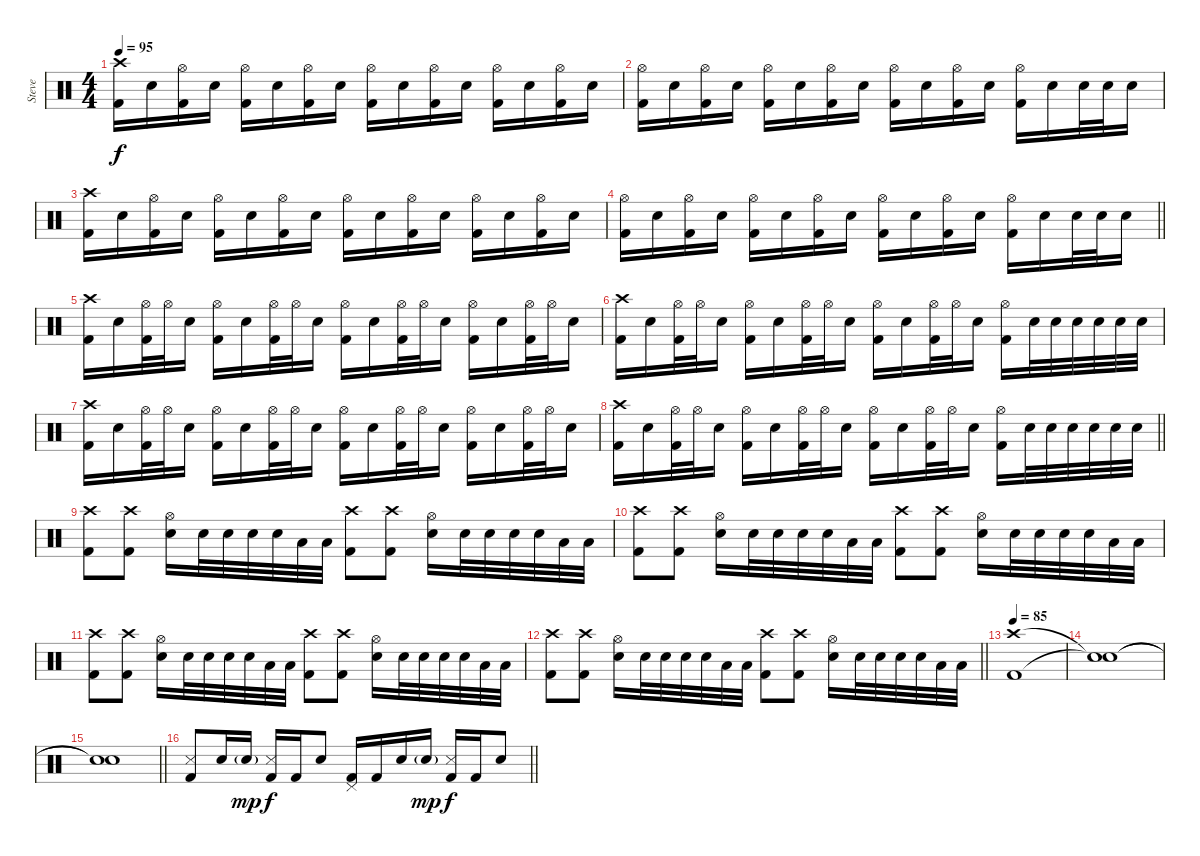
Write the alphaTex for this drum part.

\track ("Steve" "Steve") {instrument percussion}
\staff {score}
\articulation defaults
\ts (4 4)
\tempo 95
\clef neutral
\ks c
("Kick (hit) 2" "Crash high (hit)").16{dy f} "Snare (hit) 2".16 ("Kick (hit) 2" "Hi-Hat (open)").16 "Snare (hit) 2".16 ("Kick (hit) 2" "Hi-Hat (open)").16 "Snare (hit) 2".16 ("Kick (hit) 2" "Hi-Hat (open)").16 "Snare (hit) 2".16 ("Kick (hit) 2" "Hi-Hat (open)").16 "Snare (hit) 2".16 ("Kick (hit) 2" "Hi-Hat (open)").16 "Snare (hit) 2".16 ("Kick (hit) 2" "Hi-Hat (open)").16 "Snare (hit) 2".16 ("Kick (hit) 2" "Hi-Hat (open)").16 "Snare (hit) 2".16 |
("Kick (hit) 2" "Hi-Hat (open)").16 "Snare (hit) 2".16 ("Kick (hit) 2" "Hi-Hat (open)").16 "Snare (hit) 2".16 ("Kick (hit) 2" "Hi-Hat (open)").16 "Snare (hit) 2".16 ("Kick (hit) 2" "Hi-Hat (open)").16 "Snare (hit) 2".16 ("Kick (hit) 2" "Hi-Hat (open)").16 "Snare (hit) 2".16 ("Kick (hit) 2" "Hi-Hat (open)").16 "Snare (hit) 2".16 ("Kick (hit) 2" "Hi-Hat (open)").16 "Snare (hit) 2".16 "Snare (hit) 2".32 "Snare (hit) 2".32 "Snare (hit) 2".16 |
("Kick (hit) 2" "Crash high (hit)").16 "Snare (hit) 2".16 ("Kick (hit) 2" "Hi-Hat (open)").16 "Snare (hit) 2".16 ("Kick (hit) 2" "Hi-Hat (open)").16 "Snare (hit) 2".16 ("Kick (hit) 2" "Hi-Hat (open)").16 "Snare (hit) 2".16 ("Kick (hit) 2" "Hi-Hat (open)").16 "Snare (hit) 2".16 ("Kick (hit) 2" "Hi-Hat (open)").16 "Snare (hit) 2".16 ("Kick (hit) 2" "Hi-Hat (open)").16 "Snare (hit) 2".16 ("Kick (hit) 2" "Hi-Hat (open)").16 "Snare (hit) 2".16 |
\barLineRight lightlight
("Kick (hit) 2" "Hi-Hat (open)").16 "Snare (hit) 2".16 ("Kick (hit) 2" "Hi-Hat (open)").16 "Snare (hit) 2".16 ("Kick (hit) 2" "Hi-Hat (open)").16 "Snare (hit) 2".16 ("Kick (hit) 2" "Hi-Hat (open)").16 "Snare (hit) 2".16 ("Kick (hit) 2" "Hi-Hat (open)").16 "Snare (hit) 2".16 ("Kick (hit) 2" "Hi-Hat (open)").16 "Snare (hit) 2".16 ("Kick (hit) 2" "Hi-Hat (open)").16 "Snare (hit) 2".16 "Snare (hit) 2".32 "Snare (hit) 2".32 "Snare (hit) 2".16 |
("Kick (hit) 2" "Crash high (hit)").16 "Snare (hit) 2".16 ("Kick (hit) 2" "Hi-Hat (open)").32 "Hi-Hat (open)".32 "Snare (hit) 2".16 ("Kick (hit) 2" "Hi-Hat (open)").16 "Snare (hit) 2".16 ("Kick (hit) 2" "Hi-Hat (open)").32 "Hi-Hat (open)".32 "Snare (hit) 2".16 ("Kick (hit) 2" "Hi-Hat (open)").16 "Snare (hit) 2".16 ("Kick (hit) 2" "Hi-Hat (open)").32 "Hi-Hat (open)".32 "Snare (hit) 2".16 ("Kick (hit) 2" "Hi-Hat (open)").16 "Snare (hit) 2".16 ("Kick (hit) 2" "Hi-Hat (open)").32 "Hi-Hat (open)".32 "Snare (hit) 2".16 |
("Kick (hit) 2" "Crash high (hit)").16 "Snare (hit) 2".16 ("Kick (hit) 2" "Hi-Hat (open)").32 "Hi-Hat (open)".32 "Snare (hit) 2".16 ("Kick (hit) 2" "Hi-Hat (open)").16 "Snare (hit) 2".16 ("Kick (hit) 2" "Hi-Hat (open)").32 "Hi-Hat (open)".32 "Snare (hit) 2".16 ("Kick (hit) 2" "Hi-Hat (open)").16 "Snare (hit) 2".16 ("Kick (hit) 2" "Hi-Hat (open)").32 "Hi-Hat (open)".32 "Snare (hit) 2".16 ("Kick (hit) 2" "Hi-Hat (open)").16 "Snare (hit) 2".32 "Snare (hit) 2".32 "Snare (hit) 2".32 "Snare (hit) 2".32 "Snare (hit) 2".32 "Snare (hit) 2".32 |
("Kick (hit) 2" "Crash high (hit)").16 "Snare (hit) 2".16 ("Kick (hit) 2" "Hi-Hat (open)").32 "Hi-Hat (open)".32 "Snare (hit) 2".16 ("Kick (hit) 2" "Hi-Hat (open)").16 "Snare (hit) 2".16 ("Kick (hit) 2" "Hi-Hat (open)").32 "Hi-Hat (open)".32 "Snare (hit) 2".16 ("Kick (hit) 2" "Hi-Hat (open)").16 "Snare (hit) 2".16 ("Kick (hit) 2" "Hi-Hat (open)").32 "Hi-Hat (open)".32 "Snare (hit) 2".16 ("Kick (hit) 2" "Hi-Hat (open)").16 "Snare (hit) 2".16 ("Kick (hit) 2" "Hi-Hat (open)").32 "Hi-Hat (open)".32 "Snare (hit) 2".16 |
\barLineRight lightlight
("Kick (hit) 2" "Crash high (hit)").16 "Snare (hit) 2".16 ("Kick (hit) 2" "Hi-Hat (open)").32 "Hi-Hat (open)".32 "Snare (hit) 2".16 ("Kick (hit) 2" "Hi-Hat (open)").16 "Snare (hit) 2".16 ("Kick (hit) 2" "Hi-Hat (open)").32 "Hi-Hat (open)".32 "Snare (hit) 2".16 ("Kick (hit) 2" "Hi-Hat (open)").16 "Snare (hit) 2".16 ("Kick (hit) 2" "Hi-Hat (open)").32 "Hi-Hat (open)".32 "Snare (hit) 2".16 ("Kick (hit) 2" "Hi-Hat (open)").16 "Snare (hit) 2".32 "Snare (hit) 2".32 "Snare (hit) 2".32 "Snare (hit) 2".32 "Snare (hit) 2".32 "Snare (hit) 2".32 |
("Kick (hit) 2" "Crash high (hit)").8 ("Kick (hit) 2" "Crash high (hit)").8 ("Snare (hit) 2" "Hi-Hat (open)").16 "Snare (hit) 2".32 "Snare (hit) 2".32 "Snare (hit) 2".32 "Snare (hit) 2".32 "Low Floor Tom (hit)".32 "Low Floor Tom (hit)".32 ("Kick (hit) 2" "Crash high (hit)").8 ("Kick (hit) 2" "Crash high (hit)").8 ("Snare (hit) 2" "Hi-Hat (open)").16 "Snare (hit) 2".32 "Snare (hit) 2".32 "Snare (hit) 2".32 "Snare (hit) 2".32 "Low Floor Tom (hit)".32 "Low Floor Tom (hit)".32 |
("Kick (hit) 2" "Crash high (hit)").8 ("Kick (hit) 2" "Crash high (hit)").8 ("Snare (hit) 2" "Hi-Hat (open)").16 "Snare (hit) 2".32 "Snare (hit) 2".32 "Snare (hit) 2".32 "Snare (hit) 2".32 "Low Floor Tom (hit)".32 "Low Floor Tom (hit)".32 ("Kick (hit) 2" "Crash high (hit)").8 ("Kick (hit) 2" "Crash high (hit)").8 ("Snare (hit) 2" "Hi-Hat (open)").16 "Snare (hit) 2".32 "Snare (hit) 2".32 "Snare (hit) 2".32 "Snare (hit) 2".32 "Low Floor Tom (hit)".32 "Low Floor Tom (hit)".32 |
("Kick (hit) 2" "Crash high (hit)").8 ("Kick (hit) 2" "Crash high (hit)").8 ("Snare (hit) 2" "Hi-Hat (open)").16 "Snare (hit) 2".32 "Snare (hit) 2".32 "Snare (hit) 2".32 "Snare (hit) 2".32 "Low Floor Tom (hit)".32 "Low Floor Tom (hit)".32 ("Kick (hit) 2" "Crash high (hit)").8 ("Kick (hit) 2" "Crash high (hit)").8 ("Snare (hit) 2" "Hi-Hat (open)").16 "Snare (hit) 2".32 "Snare (hit) 2".32 "Snare (hit) 2".32 "Snare (hit) 2".32 "Low Floor Tom (hit)".32 "Low Floor Tom (hit)".32 |
\barLineRight lightlight
("Kick (hit) 2" "Crash high (hit)").8 ("Kick (hit) 2" "Crash high (hit)").8 ("Snare (hit) 2" "Hi-Hat (open)").16 "Snare (hit) 2".32 "Snare (hit) 2".32 "Snare (hit) 2".32 "Snare (hit) 2".32 "Low Floor Tom (hit)".32 "Low Floor Tom (hit)".32 ("Kick (hit) 2" "Crash high (hit)").8 ("Kick (hit) 2" "Crash high (hit)").8 ("Snare (hit) 2" "Hi-Hat (open)").16 "Snare (hit) 2".32 "Snare (hit) 2".32 "Snare (hit) 2".32 "Snare (hit) 2".32 "Low Floor Tom (hit)".32 "Low Floor Tom (hit)".32 |
\tempo 85
("Kick (hit) 2" "Crash high (hit)").1 |
("Snare (hit)"{t} "Snare (hit)"{t}).1 |
\barLineRight lightlight
("Snare (hit)"{t} "Snare (hit)"{t}).1 |
\barLineRight lightlight
("Kick (hit) 2" "Snare (side stick) 3").8 "Snare (hit) 2".16 "Snare (hit) 2"{g}.16{dy mp} ("Kick (hit) 2" "Snare (side stick) 3").16{dy f} "Kick (hit) 2".16 "Snare (hit) 2".8 ("Kick (hit) 2" "Pedal Hi-Hat (hit)").16 "Kick (hit) 2".16 "Snare (hit) 2".16 "Snare (hit) 2"{g}.16{dy mp} ("Kick (hit) 2" "Snare (side stick) 3").16{dy f} "Kick (hit) 2".16 "Snare (hit) 2".8
